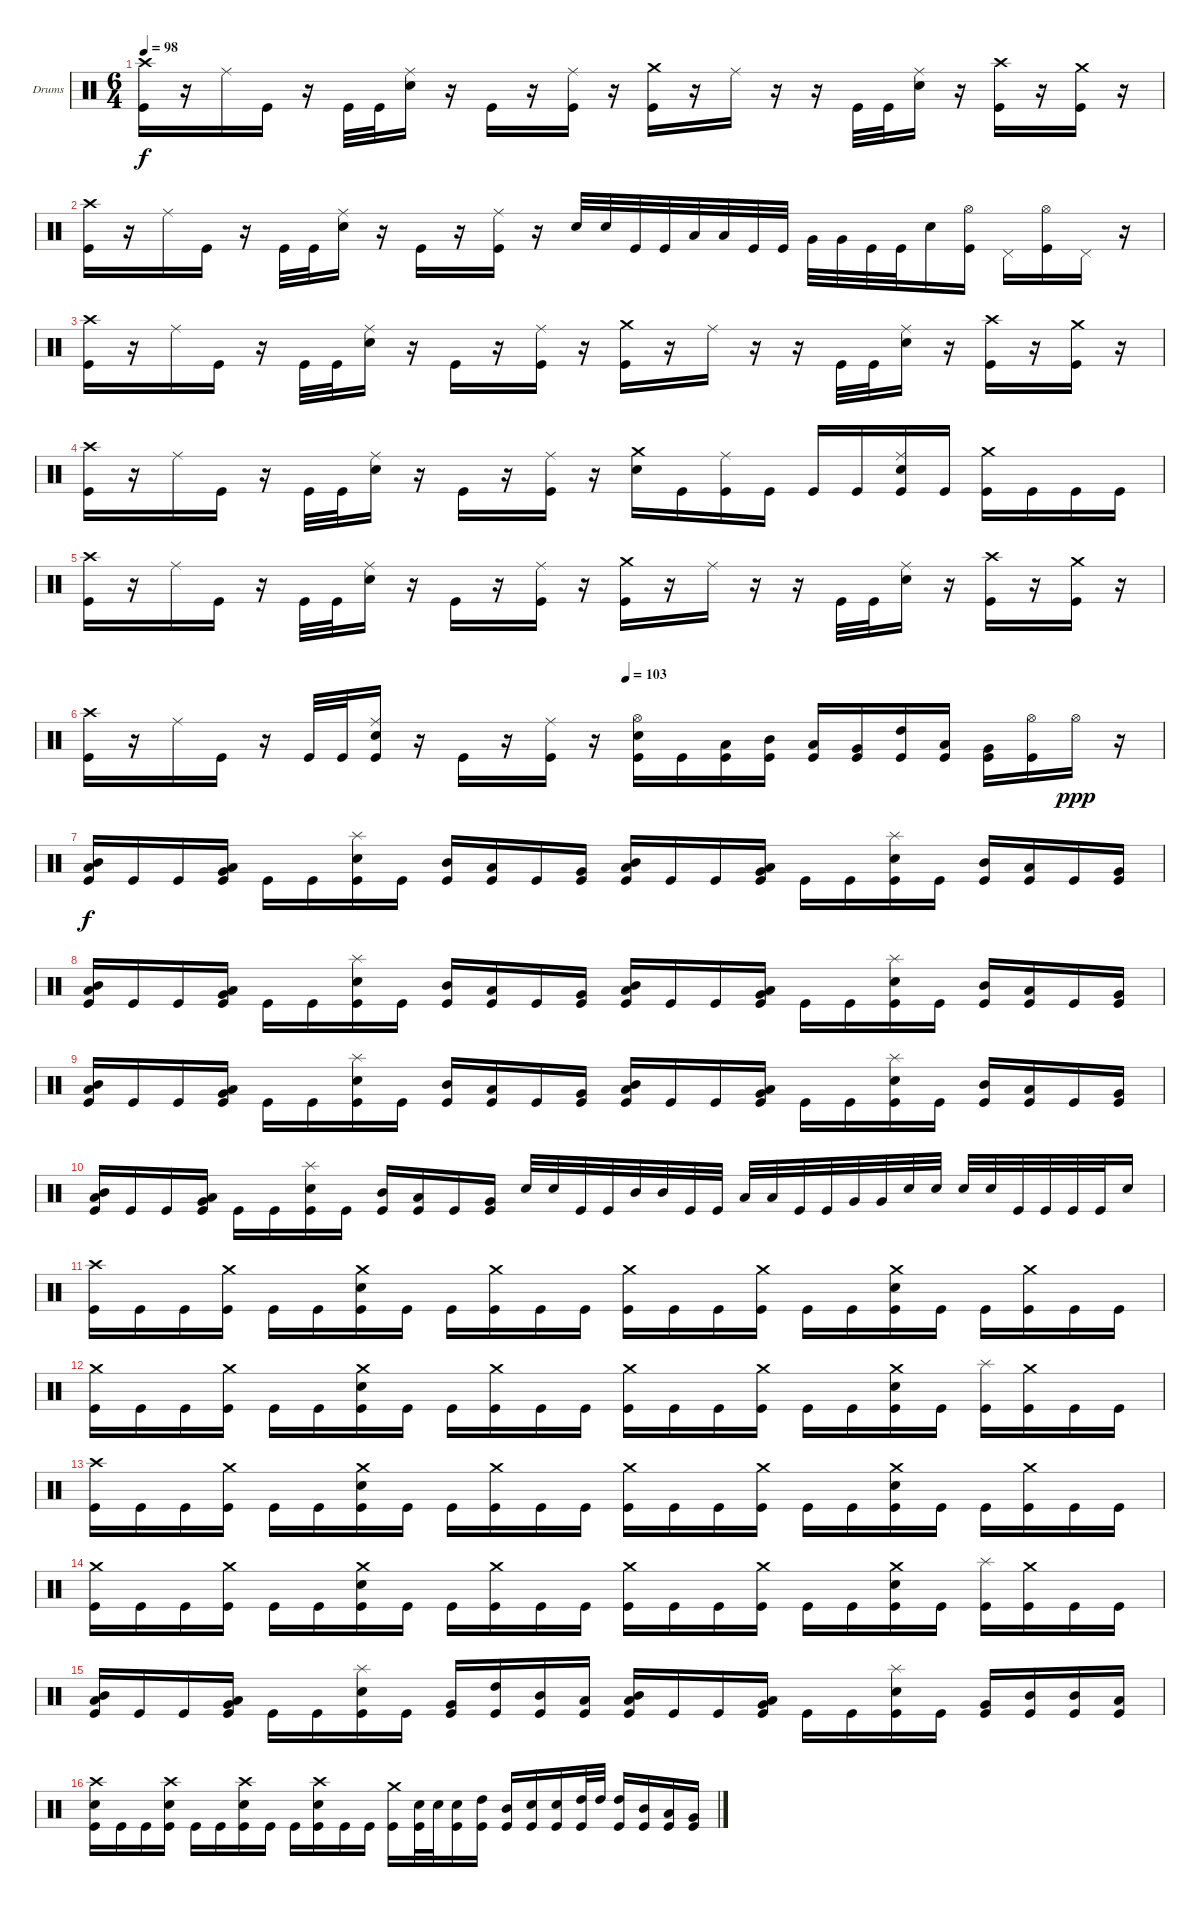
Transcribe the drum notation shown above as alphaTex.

\bracketExtendMode groupsimilarinstruments
\firstSystemTrackNameOrientation horizontal
\otherSystemsTrackNameOrientation horizontal
\track ("Drumkit" "Drums") {instrument percussion}
\staff {score}
\articulation defaults
\ts (6 4)
\tempo 98
\clef neutral
\ks c
("Crash high (hit)" "Kick (hit)").16{dy f} r.16 "Ride (middle)".16 "Kick (hit)".16 r.16 "Kick (hit)".32 "Kick (hit)".32 ("Ride (middle)" "Snare (hit) 2").16 r.16 "Kick (hit)".16 r.16 ("Ride (middle)" "Kick (hit)").16 r.16 ("Crash medium (hit)" "Kick (hit)").16 r.16 "Ride (middle)".16 r.16 r.16 "Kick (hit)".32 "Kick (hit)".32 ("Ride (middle)" "Snare (hit) 2").16 r.16 ("Crash high (hit)" "Kick (hit)").16 r.16 ("Crash medium (hit)" "Kick (hit)").16 r.16 |
("Crash high (hit)" "Kick (hit)").16 r.16 "Ride (middle)".16 "Kick (hit)".16 r.16 "Kick (hit)".32 "Kick (hit)".32 ("Ride (middle)" "Snare (hit) 2").16 r.16 "Kick (hit)".16 r.16 ("Ride (middle)" "Kick (hit)").16 r.16 "Snare (hit) 2".32 "Snare (hit) 2".32 "Kick (hit)".32 "Kick (hit)".32 "Low Tom (hit)".32 "Low Tom (hit)".32 "Kick (hit)".32 "Kick (hit)".32 "Very Low Tom (hit)".32 "Very Low Tom (hit)".32 "Kick (hit)".32 "Kick (hit)".32 "Snare (hit) 2".16 ("Hi-Hat (open)" "Kick (hit)").16 "Pedal Hi-Hat (hit)".16 ("Hi-Hat (open)" "Kick (hit)").16 "Pedal Hi-Hat (hit)".16 r.16 |
("Crash high (hit)" "Kick (hit)").16 r.16 "Ride (middle)".16 "Kick (hit)".16 r.16 "Kick (hit)".32 "Kick (hit)".32 ("Ride (middle)" "Snare (hit) 2").16 r.16 "Kick (hit)".16 r.16 ("Ride (middle)" "Kick (hit)").16 r.16 ("Crash medium (hit)" "Kick (hit)").16 r.16 "Ride (middle)".16 r.16 r.16 "Kick (hit)".32 "Kick (hit)".32 ("Ride (middle)" "Snare (hit) 2").16 r.16 ("Crash high (hit)" "Kick (hit)").16 r.16 ("Crash medium (hit)" "Kick (hit)").16 r.16 |
("Crash high (hit)" "Kick (hit)").16 r.16 "Ride (middle)".16 "Kick (hit)".16 r.16 "Kick (hit)".32 "Kick (hit)".32 ("Ride (middle)" "Snare (hit) 2").16 r.16 "Kick (hit)".16 r.16 ("Ride (middle)" "Kick (hit)").16 r.16 ("Crash medium (hit)" "Snare (hit) 2").16 "Kick (hit)".16 ("Ride (middle)" "Kick (hit)").16 "Kick (hit)".16 "Kick (hit)".16 "Kick (hit)".16 ("Ride (middle)" "Snare (hit) 2" "Kick (hit)").16 "Kick (hit)".16 ("Crash medium (hit)" "Kick (hit)").16 "Kick (hit)".16 "Kick (hit)".16 "Kick (hit)".16 |
("Crash high (hit)" "Kick (hit)").16 r.16 "Ride (middle)".16 "Kick (hit)".16 r.16 "Kick (hit)".32 "Kick (hit)".32 ("Ride (middle)" "Snare (hit) 2").16 r.16 "Kick (hit)".16 r.16 ("Ride (middle)" "Kick (hit)").16 r.16 ("Crash medium (hit)" "Kick (hit)").16 r.16 "Ride (middle)".16 r.16 r.16 "Kick (hit)".32 "Kick (hit)".32 ("Ride (middle)" "Snare (hit) 2").16 r.16 ("Crash high (hit)" "Kick (hit)").16 r.16 ("Crash medium (hit)" "Kick (hit)").16 r.16 |
\tempo (103 0.5)
("Crash high (hit)" "Kick (hit)").16 r.16 "Ride (middle)".16 "Kick (hit)".16 r.16 "Kick (hit)".32 "Kick (hit)".32 ("Ride (middle)" "Snare (hit) 2" "Kick (hit)").16 r.16 "Kick (hit)".16 r.16 ("Ride (middle)" "Kick (hit)").16 r.16 ("Hi-Hat (open)" "Snare (hit) 2" "Kick (hit)").16 "Kick (hit)".16 ("Low Tom (hit)" "Kick (hit)").16 ("Mid Tom (hit)" "Kick (hit)").16 ("Low Tom (hit)" "Kick (hit)").16 ("Very Low Tom (hit)" "Kick (hit)").16 ("High Tom (hit)" "Kick (hit)").16 ("Low Tom (hit)" "Kick (hit)").16 ("Very Low Tom (hit)" "Kick (hit)").16 ("Hi-Hat (open)" "Kick (hit)").16 "Hi-Hat (open)".16{dy ppp} r.16 |
("Mid Tom (hit)" "Low Tom (hit)" "Kick (hit)").16{dy f} "Kick (hit)".16 "Kick (hit)".16 ("Low Tom (hit)" "Very Low Tom (hit)" "Kick (hit)").16 "Kick (hit)".16 "Kick (hit)".16 ("Splash (hit)" "Snare (hit) 2" "Kick (hit)").16 "Kick (hit)".16 ("Mid Tom (hit)" "Kick (hit)").16 ("Low Tom (hit)" "Kick (hit)").16 "Kick (hit)".16 ("Very Low Tom (hit)" "Kick (hit)").16 ("Mid Tom (hit)" "Low Tom (hit)" "Kick (hit)").16 "Kick (hit)".16 "Kick (hit)".16 ("Low Tom (hit)" "Very Low Tom (hit)" "Kick (hit)").16 "Kick (hit)".16 "Kick (hit)".16 ("Splash (hit)" "Snare (hit) 2" "Kick (hit)").16 "Kick (hit)".16 ("Mid Tom (hit)" "Kick (hit)").16 ("Low Tom (hit)" "Kick (hit)").16 "Kick (hit)".16 ("Very Low Tom (hit)" "Kick (hit)").16 |
("Mid Tom (hit)" "Low Tom (hit)" "Kick (hit)").16 "Kick (hit)".16 "Kick (hit)".16 ("Low Tom (hit)" "Very Low Tom (hit)" "Kick (hit)").16 "Kick (hit)".16 "Kick (hit)".16 ("Splash (hit)" "Snare (hit) 2" "Kick (hit)").16 "Kick (hit)".16 ("Mid Tom (hit)" "Kick (hit)").16 ("Low Tom (hit)" "Kick (hit)").16 "Kick (hit)".16 ("Very Low Tom (hit)" "Kick (hit)").16 ("Mid Tom (hit)" "Low Tom (hit)" "Kick (hit)").16 "Kick (hit)".16 "Kick (hit)".16 ("Low Tom (hit)" "Very Low Tom (hit)" "Kick (hit)").16 "Kick (hit)".16 "Kick (hit)".16 ("Splash (hit)" "Snare (hit) 2" "Kick (hit)").16 "Kick (hit)".16 ("Mid Tom (hit)" "Kick (hit)").16 ("Low Tom (hit)" "Kick (hit)").16 "Kick (hit)".16 ("Very Low Tom (hit)" "Kick (hit)").16 |
("Mid Tom (hit)" "Low Tom (hit)" "Kick (hit)").16 "Kick (hit)".16 "Kick (hit)".16 ("Low Tom (hit)" "Very Low Tom (hit)" "Kick (hit)").16 "Kick (hit)".16 "Kick (hit)".16 ("Splash (hit)" "Snare (hit) 2" "Kick (hit)").16 "Kick (hit)".16 ("Mid Tom (hit)" "Kick (hit)").16 ("Low Tom (hit)" "Kick (hit)").16 "Kick (hit)".16 ("Very Low Tom (hit)" "Kick (hit)").16 ("Mid Tom (hit)" "Low Tom (hit)" "Kick (hit)").16 "Kick (hit)".16 "Kick (hit)".16 ("Low Tom (hit)" "Very Low Tom (hit)" "Kick (hit)").16 "Kick (hit)".16 "Kick (hit)".16 ("Splash (hit)" "Snare (hit) 2" "Kick (hit)").16 "Kick (hit)".16 ("Mid Tom (hit)" "Kick (hit)").16 ("Low Tom (hit)" "Kick (hit)").16 "Kick (hit)".16 ("Very Low Tom (hit)" "Kick (hit)").16 |
("Mid Tom (hit)" "Low Tom (hit)" "Kick (hit)").16 "Kick (hit)".16 "Kick (hit)".16 ("Low Tom (hit)" "Very Low Tom (hit)" "Kick (hit)").16 "Kick (hit)".16 "Kick (hit)".16 ("Splash (hit)" "Snare (hit) 2" "Kick (hit)").16 "Kick (hit)".16 ("Mid Tom (hit)" "Kick (hit)").16 ("Low Tom (hit)" "Kick (hit)").16 "Kick (hit)".16 ("Very Low Tom (hit)" "Kick (hit)").16 "Snare (hit) 2".32 "Snare (hit) 2".32 "Kick (hit)".32 "Kick (hit)".32 "Mid Tom (hit)".32 "Mid Tom (hit)".32 "Kick (hit)".32 "Kick (hit)".32 "Low Tom (hit)".32 "Low Tom (hit)".32 "Kick (hit)".32 "Kick (hit)".32 "Very Low Tom (hit)".32 "Very Low Tom (hit)".32 "Snare (hit) 2".32 "Snare (hit) 2".32 "Snare (hit) 2".32 "Snare (hit) 2".32 "Kick (hit)".32 "Kick (hit)".32 "Kick (hit)".32 "Kick (hit)".32 "Snare (hit) 2".16 |
("Crash high (hit)" "Kick (hit)").16 "Kick (hit)".16 "Kick (hit)".16 ("Crash medium (hit)" "Kick (hit)").16 "Kick (hit)".16 "Kick (hit)".16 ("Crash medium (hit)" "Snare (hit) 2" "Kick (hit)").16 "Kick (hit)".16 "Kick (hit)".16 ("Crash medium (hit)" "Kick (hit)").16 "Kick (hit)".16 "Kick (hit)".16 ("Crash medium (hit)" "Kick (hit)").16 "Kick (hit)".16 "Kick (hit)".16 ("Crash medium (hit)" "Kick (hit)").16 "Kick (hit)".16 "Kick (hit)".16 ("Crash medium (hit)" "Snare (hit) 2" "Kick (hit)").16 "Kick (hit)".16 "Kick (hit)".16 ("Crash medium (hit)" "Kick (hit)").16 "Kick (hit)".16 "Kick (hit)".16 |
("Crash medium (hit)" "Kick (hit)").16 "Kick (hit)".16 "Kick (hit)".16 ("Crash medium (hit)" "Kick (hit)").16 "Kick (hit)".16 "Kick (hit)".16 ("Crash medium (hit)" "Snare (hit) 2" "Kick (hit)").16 "Kick (hit)".16 "Kick (hit)".16 ("Crash medium (hit)" "Kick (hit)").16 "Kick (hit)".16 "Kick (hit)".16 ("Crash medium (hit)" "Kick (hit)").16 "Kick (hit)".16 "Kick (hit)".16 ("Crash medium (hit)" "Kick (hit)").16 "Kick (hit)".16 "Kick (hit)".16 ("Crash medium (hit)" "Snare (hit) 2" "Kick (hit)").16 "Kick (hit)".16 ("Splash (hit)" "Kick (hit)").16 ("Crash medium (hit)" "Kick (hit)").16 "Kick (hit)".16 "Kick (hit)".16 |
("Crash high (hit)" "Kick (hit)").16 "Kick (hit)".16 "Kick (hit)".16 ("Crash medium (hit)" "Kick (hit)").16 "Kick (hit)".16 "Kick (hit)".16 ("Crash medium (hit)" "Snare (hit) 2" "Kick (hit)").16 "Kick (hit)".16 "Kick (hit)".16 ("Crash medium (hit)" "Kick (hit)").16 "Kick (hit)".16 "Kick (hit)".16 ("Crash medium (hit)" "Kick (hit)").16 "Kick (hit)".16 "Kick (hit)".16 ("Crash medium (hit)" "Kick (hit)").16 "Kick (hit)".16 "Kick (hit)".16 ("Crash medium (hit)" "Snare (hit) 2" "Kick (hit)").16 "Kick (hit)".16 "Kick (hit)".16 ("Crash medium (hit)" "Kick (hit)").16 "Kick (hit)".16 "Kick (hit)".16 |
("Crash medium (hit)" "Kick (hit)").16 "Kick (hit)".16 "Kick (hit)".16 ("Crash medium (hit)" "Kick (hit)").16 "Kick (hit)".16 "Kick (hit)".16 ("Crash medium (hit)" "Snare (hit) 2" "Kick (hit)").16 "Kick (hit)".16 "Kick (hit)".16 ("Crash medium (hit)" "Kick (hit)").16 "Kick (hit)".16 "Kick (hit)".16 ("Crash medium (hit)" "Kick (hit)").16 "Kick (hit)".16 "Kick (hit)".16 ("Crash medium (hit)" "Kick (hit)").16 "Kick (hit)".16 "Kick (hit)".16 ("Crash medium (hit)" "Snare (hit) 2" "Kick (hit)").16 "Kick (hit)".16 ("Splash (hit)" "Kick (hit)").16 ("Crash medium (hit)" "Kick (hit)").16 "Kick (hit)".16 "Kick (hit)".16 |
("Mid Tom (hit)" "Low Tom (hit)" "Kick (hit)").16 "Kick (hit)".16 "Kick (hit)".16 ("Low Tom (hit)" "Very Low Tom (hit)" "Kick (hit)").16 "Kick (hit)".16 "Kick (hit)".16 ("Splash (hit)" "Snare (hit) 2" "Kick (hit)").16 "Kick (hit)".16 ("Very Low Tom (hit)" "Kick (hit)").16 ("High Tom (hit)" "Kick (hit)").16 ("Mid Tom (hit)" "Kick (hit)").16 ("Low Tom (hit)" "Kick (hit)").16 ("Mid Tom (hit)" "Low Tom (hit)" "Kick (hit)").16 "Kick (hit)".16 "Kick (hit)".16 ("Low Tom (hit)" "Very Low Tom (hit)" "Kick (hit)").16 "Kick (hit)".16 "Kick (hit)".16 ("Splash (hit)" "Snare (hit) 2" "Kick (hit)").16 "Kick (hit)".16 ("Very Low Tom (hit)" "Kick (hit)").16 ("Mid Tom (hit)" "Kick (hit)").16 ("Mid Tom (hit)" "Kick (hit)").16 ("Low Tom (hit)" "Kick (hit)").16 |
("Crash high (hit)" "Snare (hit) 2" "Kick (hit)").16 "Kick (hit)".16 "Kick (hit)".16 ("Crash high (hit)" "Snare (hit) 2" "Kick (hit)").16 "Kick (hit)".16 "Kick (hit)".16 ("Crash high (hit)" "Snare (hit) 2" "Kick (hit)").16 "Kick (hit)".16 "Kick (hit)".16 ("Crash high (hit)" "Snare (hit) 2" "Kick (hit)").16 "Kick (hit)".16 "Kick (hit)".16 ("Crash medium (hit)" "Kick (hit)").16 ("Snare (hit) 2" "Kick (hit)").32 "Snare (hit) 2".32 ("Snare (hit) 2" "Kick (hit)").16 ("High Tom (hit)" "Kick (hit)").16 ("Mid Tom (hit)" "Kick (hit)").16 ("Snare (hit) 2" "Kick (hit)").16 ("Snare (hit) 2" "Kick (hit)").16 ("High Tom (hit)" "Kick (hit)").32 "High Tom (hit)".32 ("High Tom (hit)" "Kick (hit)").16 ("Mid Tom (hit)" "Kick (hit)").16 ("Low Tom (hit)" "Kick (hit)").16 ("Very Low Tom (hit)" "Kick (hit)").16
